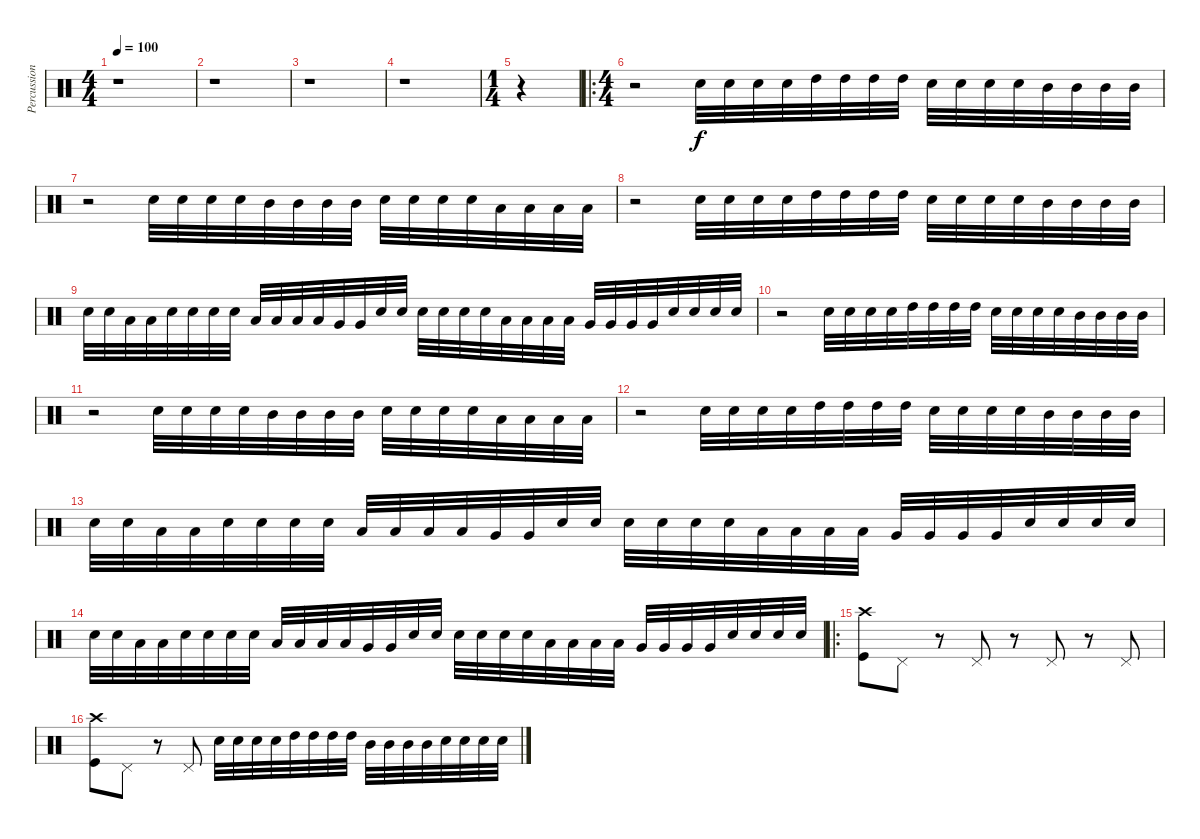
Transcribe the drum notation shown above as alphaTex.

\track ("Percussion" "Percussion") {instrument percussion}
\staff {score}
\articulation defaults
\ts (4 4)
\tempo 100
\clef neutral
\ks c
r.1{dy f} |
r.1 |
r.1 |
r.1 |
\ts (1 4)
r.4 |
\ro
\ts (4 4)
r.2 "Electric Snare (hit)".32 "Electric Snare (hit)".32 "Electric Snare (hit)".32 "Electric Snare (hit)".32 "High Tom (hit)".32 "High Tom (hit)".32 "High Tom (hit)".32 "High Tom (hit)".32 "Electric Snare (hit)".32 "Electric Snare (hit)".32 "Electric Snare (hit)".32 "Electric Snare (hit)".32 "Mid Tom (hit)".32 "Mid Tom (hit)".32 "Mid Tom (hit)".32 "Mid Tom (hit)".32 |
r.2 "Electric Snare (hit)".32 "Electric Snare (hit)".32 "Electric Snare (hit)".32 "Electric Snare (hit)".32 "Mid Tom (hit)".32 "Mid Tom (hit)".32 "Mid Tom (hit)".32 "Mid Tom (hit)".32 "Electric Snare (hit)".32 "Electric Snare (hit)".32 "Electric Snare (hit)".32 "Electric Snare (hit)".32 "Low Tom (hit)".32 "Low Tom (hit)".32 "Low Tom (hit)".32 "Low Tom (hit)".32 |
r.2 "Electric Snare (hit)".32 "Electric Snare (hit)".32 "Electric Snare (hit)".32 "Electric Snare (hit)".32 "High Tom (hit)".32 "High Tom (hit)".32 "High Tom (hit)".32 "High Tom (hit)".32 "Electric Snare (hit)".32 "Electric Snare (hit)".32 "Electric Snare (hit)".32 "Electric Snare (hit)".32 "Mid Tom (hit)".32 "Mid Tom (hit)".32 "Mid Tom (hit)".32 "Mid Tom (hit)".32 |
"Electric Snare (hit)".32 "Electric Snare (hit)".32 "Low Tom (hit)".32 "Low Tom (hit)".32 "Electric Snare (hit)".32 "Electric Snare (hit)".32 "Electric Snare (hit)".32 "Electric Snare (hit)".32 "Low Tom (hit)".32 "Low Tom (hit)".32 "Low Tom (hit)".32 "Low Tom (hit)".32 "Very Low Tom (hit)".32 "Very Low Tom (hit)".32 "Electric Snare (hit)".32 "Electric Snare (hit)".32 "Electric Snare (hit)".32 "Electric Snare (hit)".32 "Electric Snare (hit)".32 "Electric Snare (hit)".32 "Low Tom (hit)".32 "Low Tom (hit)".32 "Low Tom (hit)".32 "Low Tom (hit)".32 "Very Low Tom (hit)".32 "Very Low Tom (hit)".32 "Very Low Tom (hit)".32 "Very Low Tom (hit)".32 "Electric Snare (hit)".32 "Electric Snare (hit)".32 "Electric Snare (hit)".32 "Electric Snare (hit)".32 |
r.2 "Electric Snare (hit)".32 "Electric Snare (hit)".32 "Electric Snare (hit)".32 "Electric Snare (hit)".32 "High Tom (hit)".32 "High Tom (hit)".32 "High Tom (hit)".32 "High Tom (hit)".32 "Electric Snare (hit)".32 "Electric Snare (hit)".32 "Electric Snare (hit)".32 "Electric Snare (hit)".32 "Mid Tom (hit)".32 "Mid Tom (hit)".32 "Mid Tom (hit)".32 "Mid Tom (hit)".32 |
r.2 "Electric Snare (hit)".32 "Electric Snare (hit)".32 "Electric Snare (hit)".32 "Electric Snare (hit)".32 "Mid Tom (hit)".32 "Mid Tom (hit)".32 "Mid Tom (hit)".32 "Mid Tom (hit)".32 "Electric Snare (hit)".32 "Electric Snare (hit)".32 "Electric Snare (hit)".32 "Electric Snare (hit)".32 "Low Tom (hit)".32 "Low Tom (hit)".32 "Low Tom (hit)".32 "Low Tom (hit)".32 |
r.2 "Electric Snare (hit)".32 "Electric Snare (hit)".32 "Electric Snare (hit)".32 "Electric Snare (hit)".32 "High Tom (hit)".32 "High Tom (hit)".32 "High Tom (hit)".32 "High Tom (hit)".32 "Electric Snare (hit)".32 "Electric Snare (hit)".32 "Electric Snare (hit)".32 "Electric Snare (hit)".32 "Mid Tom (hit)".32 "Mid Tom (hit)".32 "Mid Tom (hit)".32 "Mid Tom (hit)".32 |
"Electric Snare (hit)".32 "Electric Snare (hit)".32 "Low Tom (hit)".32 "Low Tom (hit)".32 "Electric Snare (hit)".32 "Electric Snare (hit)".32 "Electric Snare (hit)".32 "Electric Snare (hit)".32 "Low Tom (hit)".32 "Low Tom (hit)".32 "Low Tom (hit)".32 "Low Tom (hit)".32 "Very Low Tom (hit)".32 "Very Low Tom (hit)".32 "Electric Snare (hit)".32 "Electric Snare (hit)".32 "Electric Snare (hit)".32 "Electric Snare (hit)".32 "Electric Snare (hit)".32 "Electric Snare (hit)".32 "Low Tom (hit)".32 "Low Tom (hit)".32 "Low Tom (hit)".32 "Low Tom (hit)".32 "Very Low Tom (hit)".32 "Very Low Tom (hit)".32 "Very Low Tom (hit)".32 "Very Low Tom (hit)".32 "Electric Snare (hit)".32 "Electric Snare (hit)".32 "Electric Snare (hit)".32 "Electric Snare (hit)".32 |
"Electric Snare (hit)".32 "Electric Snare (hit)".32 "Low Tom (hit)".32 "Low Tom (hit)".32 "Electric Snare (hit)".32 "Electric Snare (hit)".32 "Electric Snare (hit)".32 "Electric Snare (hit)".32 "Low Tom (hit)".32 "Low Tom (hit)".32 "Low Tom (hit)".32 "Low Tom (hit)".32 "Very Low Tom (hit)".32 "Very Low Tom (hit)".32 "Electric Snare (hit)".32 "Electric Snare (hit)".32 "Electric Snare (hit)".32 "Electric Snare (hit)".32 "Electric Snare (hit)".32 "Electric Snare (hit)".32 "Low Tom (hit)".32 "Low Tom (hit)".32 "Low Tom (hit)".32 "Low Tom (hit)".32 "Very Low Tom (hit)".32 "Very Low Tom (hit)".32 "Very Low Tom (hit)".32 "Very Low Tom (hit)".32 "Electric Snare (hit)".32 "Electric Snare (hit)".32 "Electric Snare (hit)".32 "Electric Snare (hit)".32 |
\ro
("Crash high (hit)" "Kick (hit)").8 "Pedal Hi-Hat (hit)".8 r.8 "Pedal Hi-Hat (hit)".8 r.8 "Pedal Hi-Hat (hit)".8 r.8 "Pedal Hi-Hat (hit)".8 |
("Crash high (hit)" "Kick (hit)").8 "Pedal Hi-Hat (hit)".8 r.8 "Pedal Hi-Hat (hit)".8 "Electric Snare (hit)".32 "Electric Snare (hit)".32 "Electric Snare (hit)".32 "Electric Snare (hit)".32 "High Tom (hit)".32 "High Tom (hit)".32 "High Tom (hit)".32 "High Tom (hit)".32 "Mid Tom (hit)".32 "Mid Tom (hit)".32 "Mid Tom (hit)".32 "Mid Tom (hit)".32 "Electric Snare (hit)".32 "Electric Snare (hit)".32 "Electric Snare (hit)".32 "Electric Snare (hit)".32
